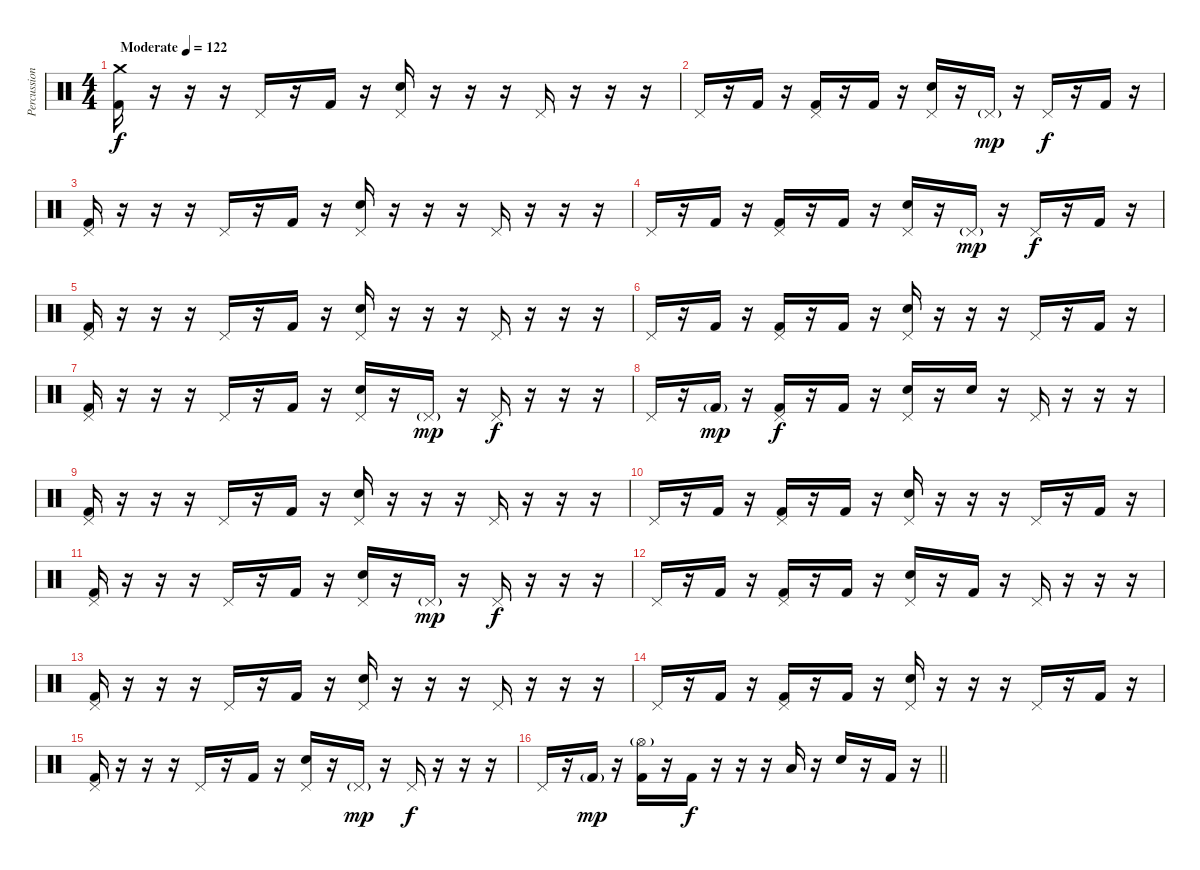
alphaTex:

\track ("Percussion" "Percussion") {instrument percussion}
\staff {score}
\articulation defaults
\ts (4 4)
\tempo (122 "Moderate")
\clef neutral
\ks c
("Kick (hit) 2" "Crash medium (hit)").16{dy f} r.16 r.16 r.16 "Pedal Hi-Hat (hit)".16 r.16 "Kick (hit) 2".16 r.16 ("Electric Snare (hit)" "Pedal Hi-Hat (hit)").16 r.16 r.16 r.16 "Pedal Hi-Hat (hit)".16 r.16 r.16 r.16 |
"Pedal Hi-Hat (hit)".16 r.16 "Kick (hit) 2".16 r.16 ("Kick (hit) 2" "Pedal Hi-Hat (hit)").16 r.16 "Kick (hit) 2".16 r.16 ("Electric Snare (hit)" "Pedal Hi-Hat (hit)").16 r.16 "Pedal Hi-Hat (hit)"{g}.16{dy mp} r.16 "Pedal Hi-Hat (hit)".16{dy f} r.16 "Kick (hit) 2".16 r.16 |
("Kick (hit) 2" "Pedal Hi-Hat (hit)").16 r.16 r.16 r.16 "Pedal Hi-Hat (hit)".16 r.16 "Kick (hit) 2".16 r.16 ("Electric Snare (hit)" "Pedal Hi-Hat (hit)").16 r.16 r.16 r.16 "Pedal Hi-Hat (hit)".16 r.16 r.16 r.16 |
"Pedal Hi-Hat (hit)".16 r.16 "Kick (hit) 2".16 r.16 ("Kick (hit) 2" "Pedal Hi-Hat (hit)").16 r.16 "Kick (hit) 2".16 r.16 ("Electric Snare (hit)" "Pedal Hi-Hat (hit)").16 r.16 "Pedal Hi-Hat (hit)"{g}.16{dy mp} r.16 "Pedal Hi-Hat (hit)".16{dy f} r.16 "Kick (hit) 2".16 r.16 |
("Kick (hit) 2" "Pedal Hi-Hat (hit)").16 r.16 r.16 r.16 "Pedal Hi-Hat (hit)".16 r.16 "Kick (hit) 2".16 r.16 ("Electric Snare (hit)" "Pedal Hi-Hat (hit)").16 r.16 r.16 r.16 "Pedal Hi-Hat (hit)".16 r.16 r.16 r.16 |
"Pedal Hi-Hat (hit)".16 r.16 "Kick (hit) 2".16 r.16 ("Kick (hit) 2" "Pedal Hi-Hat (hit)").16 r.16 "Kick (hit) 2".16 r.16 ("Electric Snare (hit)" "Pedal Hi-Hat (hit)").16 r.16 r.16 r.16 "Pedal Hi-Hat (hit)".16 r.16 "Kick (hit) 2".16 r.16 |
("Kick (hit) 2" "Pedal Hi-Hat (hit)").16 r.16 r.16 r.16 "Pedal Hi-Hat (hit)".16 r.16 "Kick (hit) 2".16 r.16 ("Electric Snare (hit)" "Pedal Hi-Hat (hit)").16 r.16 "Pedal Hi-Hat (hit)"{g}.16{dy mp} r.16 "Pedal Hi-Hat (hit)".16{dy f} r.16 r.16 r.16 |
"Pedal Hi-Hat (hit)".16 r.16 "Kick (hit) 2"{g}.16{dy mp} r.16 ("Kick (hit) 2" "Pedal Hi-Hat (hit)").16{dy f} r.16 "Kick (hit) 2".16 r.16 ("Electric Snare (hit)" "Pedal Hi-Hat (hit)").16 r.16 "Electric Snare (hit)".16 r.16 "Pedal Hi-Hat (hit)".16 r.16 r.16 r.16 |
("Kick (hit) 2" "Pedal Hi-Hat (hit)").16 r.16 r.16 r.16 "Pedal Hi-Hat (hit)".16 r.16 "Kick (hit) 2".16 r.16 ("Electric Snare (hit)" "Pedal Hi-Hat (hit)").16 r.16 r.16 r.16 "Pedal Hi-Hat (hit)".16 r.16 r.16 r.16 |
"Pedal Hi-Hat (hit)".16 r.16 "Kick (hit) 2".16 r.16 ("Kick (hit) 2" "Pedal Hi-Hat (hit)").16 r.16 "Kick (hit) 2".16 r.16 ("Electric Snare (hit)" "Pedal Hi-Hat (hit)").16 r.16 r.16 r.16 "Pedal Hi-Hat (hit)".16 r.16 "Kick (hit) 2".16 r.16 |
("Kick (hit) 2" "Pedal Hi-Hat (hit)").16 r.16 r.16 r.16 "Pedal Hi-Hat (hit)".16 r.16 "Kick (hit) 2".16 r.16 ("Electric Snare (hit)" "Pedal Hi-Hat (hit)").16 r.16 "Pedal Hi-Hat (hit)"{g}.16{dy mp} r.16 "Pedal Hi-Hat (hit)".16{dy f} r.16 r.16 r.16 |
"Pedal Hi-Hat (hit)".16 r.16 "Kick (hit) 2".16 r.16 ("Kick (hit) 2" "Pedal Hi-Hat (hit)").16 r.16 "Kick (hit) 2".16 r.16 ("Electric Snare (hit)" "Pedal Hi-Hat (hit)").16 r.16 "Kick (hit) 2".16 r.16 "Pedal Hi-Hat (hit)".16 r.16 r.16 r.16 |
("Kick (hit) 2" "Pedal Hi-Hat (hit)").16 r.16 r.16 r.16 "Pedal Hi-Hat (hit)".16 r.16 "Kick (hit) 2".16 r.16 ("Electric Snare (hit)" "Pedal Hi-Hat (hit)").16 r.16 r.16 r.16 "Pedal Hi-Hat (hit)".16 r.16 r.16 r.16 |
"Pedal Hi-Hat (hit)".16 r.16 "Kick (hit) 2".16 r.16 ("Kick (hit) 2" "Pedal Hi-Hat (hit)").16 r.16 "Kick (hit) 2".16 r.16 ("Electric Snare (hit)" "Pedal Hi-Hat (hit)").16 r.16 r.16 r.16 "Pedal Hi-Hat (hit)".16 r.16 "Kick (hit) 2".16 r.16 |
("Kick (hit) 2" "Pedal Hi-Hat (hit)").16 r.16 r.16 r.16 "Pedal Hi-Hat (hit)".16 r.16 "Kick (hit) 2".16 r.16 ("Electric Snare (hit)" "Pedal Hi-Hat (hit)").16 r.16 "Pedal Hi-Hat (hit)"{g}.16{dy mp} r.16 "Pedal Hi-Hat (hit)".16{dy f} r.16 r.16 r.16 |
\barLineRight lightlight "Pedal Hi-Hat (hit)".16
r.16 "Kick (hit) 2"{g}.16{dy mp} r.16 ("Kick (hit) 2" "Hi-Hat (open)"{g}).16 r.16 "Kick (hit) 2".16{dy f} r.16 r.16 r.16 "Low Tom (hit)".16 r.16 "Electric Snare (hit)".16 r.16 "Kick (hit) 2".16 r.16
